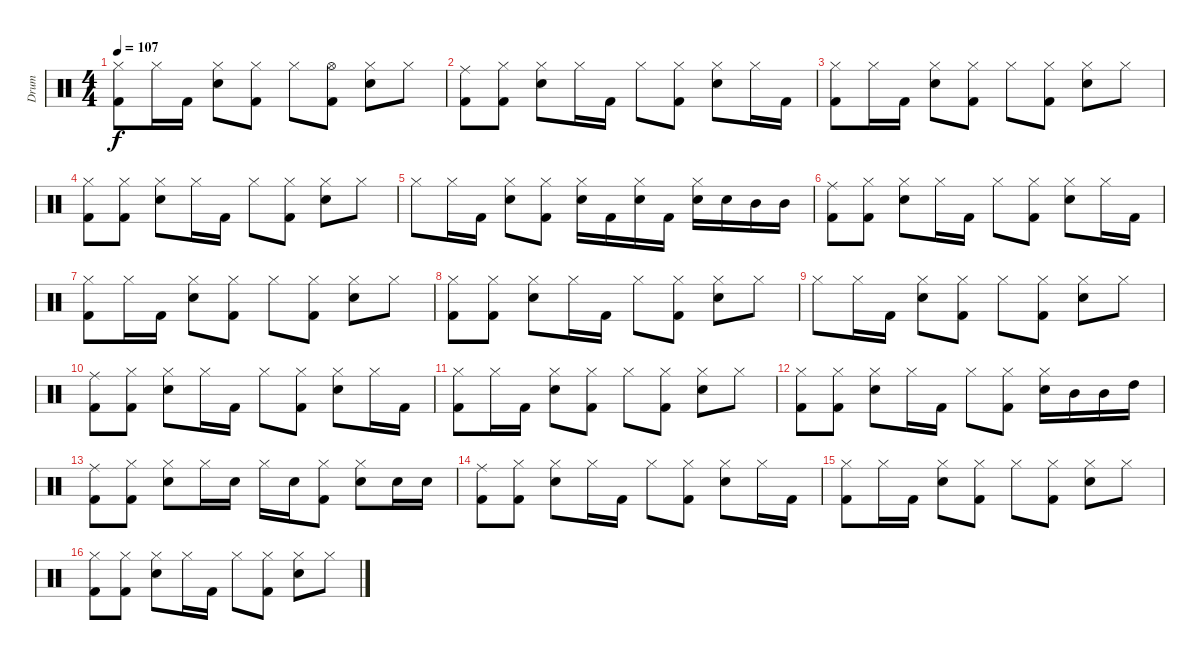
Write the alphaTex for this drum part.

\track ("Drum" "Drum") {instrument percussion}
\staff {score}
\articulation defaults
\ts (4 4)
\tempo 107
\clef neutral
\ks c
("Hi-Hat (closed)" "Kick (hit) 2").8{dy f} "Hi-Hat (closed)".16 "Kick (hit) 2".16 ("Hi-Hat (closed)" "Snare (hit) 2").8 ("Hi-Hat (closed)" "Kick (hit) 2").8 "Hi-Hat (closed)".8 ("Hi-Hat (open)" "Kick (hit) 2").8 ("Hi-Hat (closed)" "Snare (hit) 2").8 "Hi-Hat (closed)".8 |
("Ride (middle)" "Kick (hit) 2").8 ("Hi-Hat (closed)" "Kick (hit) 2").8 ("Hi-Hat (closed)" "Snare (hit) 2").8 "Hi-Hat (closed)".16 "Kick (hit) 2".16 "Hi-Hat (closed)".8 ("Hi-Hat (closed)" "Kick (hit) 2").8 ("Hi-Hat (closed)" "Snare (hit) 2").8 "Hi-Hat (closed)".16 "Kick (hit) 2".16 |
("Hi-Hat (closed)" "Kick (hit) 2").8 "Hi-Hat (closed)".16 "Kick (hit) 2".16 ("Hi-Hat (closed)" "Snare (hit) 2").8 ("Hi-Hat (closed)" "Kick (hit) 2").8 "Hi-Hat (closed)".8 ("Hi-Hat (closed)" "Kick (hit) 2").8 ("Hi-Hat (closed)" "Snare (hit) 2").8 "Hi-Hat (closed)".8 |
("Hi-Hat (closed)" "Kick (hit) 2").8 ("Hi-Hat (closed)" "Kick (hit) 2").8 ("Hi-Hat (closed)" "Snare (hit) 2").8 "Hi-Hat (closed)".16 "Kick (hit) 2".16 "Hi-Hat (closed)".8 ("Hi-Hat (closed)" "Kick (hit) 2").8 ("Hi-Hat (closed)" "Snare (hit) 2").8 "Hi-Hat (closed)".8 |
"Hi-Hat (closed)".8 "Hi-Hat (closed)".16 "Kick (hit) 2".16 ("Hi-Hat (closed)" "Snare (hit) 2").8 ("Hi-Hat (closed)" "Kick (hit) 2").8 ("Hi-Hat (closed)" "Snare (hit) 2").16 "Kick (hit) 2".16 ("Hi-Hat (closed)" "Snare (hit) 2").16 "Kick (hit) 2".16 ("Hi-Hat (closed)" "Snare (hit) 2").16 "Snare (hit) 2".16 "Mid Tom (hit)".16 "Mid Tom (hit)".16 |
("Ride (middle)" "Kick (hit) 2").8 ("Hi-Hat (closed)" "Kick (hit) 2").8 ("Hi-Hat (closed)" "Snare (hit) 2").8 "Hi-Hat (closed)".16 "Kick (hit) 2".16 "Hi-Hat (closed)".8 ("Hi-Hat (closed)" "Kick (hit) 2").8 ("Hi-Hat (closed)" "Snare (hit) 2").8 "Hi-Hat (closed)".16 "Kick (hit) 2".16 |
("Hi-Hat (closed)" "Kick (hit) 2").8 "Hi-Hat (closed)".16 "Kick (hit) 2".16 ("Hi-Hat (closed)" "Snare (hit) 2").8 ("Hi-Hat (closed)" "Kick (hit) 2").8 "Hi-Hat (closed)".8 ("Hi-Hat (closed)" "Kick (hit) 2").8 ("Hi-Hat (closed)" "Snare (hit) 2").8 "Hi-Hat (closed)".8 |
("Hi-Hat (closed)" "Kick (hit) 2").8 ("Hi-Hat (closed)" "Kick (hit) 2").8 ("Hi-Hat (closed)" "Snare (hit) 2").8 "Hi-Hat (closed)".16 "Kick (hit) 2".16 "Hi-Hat (closed)".8 ("Hi-Hat (closed)" "Kick (hit) 2").8 ("Hi-Hat (closed)" "Snare (hit) 2").8 "Hi-Hat (closed)".8 |
"Hi-Hat (closed)".8 "Hi-Hat (closed)".16 "Kick (hit) 2".16 ("Hi-Hat (closed)" "Snare (hit) 2").8 ("Hi-Hat (closed)" "Kick (hit) 2").8 "Hi-Hat (closed)".8 ("Hi-Hat (closed)" "Kick (hit) 2").8 ("Hi-Hat (closed)" "Snare (hit) 2").8 "Hi-Hat (closed)".8 |
("Ride (middle)" "Kick (hit) 2").8 ("Hi-Hat (closed)" "Kick (hit) 2").8 ("Hi-Hat (closed)" "Snare (hit) 2").8 "Hi-Hat (closed)".16 "Kick (hit) 2".16 "Hi-Hat (closed)".8 ("Hi-Hat (closed)" "Kick (hit) 2").8 ("Hi-Hat (closed)" "Snare (hit) 2").8 "Hi-Hat (closed)".16 "Kick (hit) 2".16 |
("Hi-Hat (closed)" "Kick (hit) 2").8 "Hi-Hat (closed)".16 "Kick (hit) 2".16 ("Hi-Hat (closed)" "Snare (hit) 2").8 ("Hi-Hat (closed)" "Kick (hit) 2").8 "Hi-Hat (closed)".8 ("Hi-Hat (closed)" "Kick (hit) 2").8 ("Hi-Hat (closed)" "Snare (hit) 2").8 "Hi-Hat (closed)".8 |
("Hi-Hat (closed)" "Kick (hit) 2").8 ("Hi-Hat (closed)" "Kick (hit) 2").8 ("Hi-Hat (closed)" "Snare (hit) 2").8 "Hi-Hat (closed)".16 "Kick (hit) 2".16 "Hi-Hat (closed)".8 ("Hi-Hat (closed)" "Kick (hit) 2").8 ("Hi-Hat (closed)" "Snare (hit) 2").16 "Mid Tom (hit)".16 "Mid Tom (hit)".16 "High Tom (hit)".16 |
("Ride (middle)" "Kick (hit) 2").8 ("Hi-Hat (closed)" "Kick (hit) 2").8 ("Hi-Hat (closed)" "Snare (hit) 2").8 "Hi-Hat (closed)".16 "Snare (hit) 2".16 "Hi-Hat (closed)".16 "Snare (hit) 2".16 ("Hi-Hat (closed)" "Kick (hit) 2").8 ("Hi-Hat (closed)" "Snare (hit) 2").8 "Snare (hit) 2".16 "Snare (hit) 2".16 |
("Ride (middle)" "Kick (hit) 2").8 ("Hi-Hat (closed)" "Kick (hit) 2").8 ("Hi-Hat (closed)" "Snare (hit) 2").8 "Hi-Hat (closed)".16 "Kick (hit) 2".16 "Hi-Hat (closed)".8 ("Hi-Hat (closed)" "Kick (hit) 2").8 ("Hi-Hat (closed)" "Snare (hit) 2").8 "Hi-Hat (closed)".16 "Kick (hit) 2".16 |
("Hi-Hat (closed)" "Kick (hit) 2").8 "Hi-Hat (closed)".16 "Kick (hit) 2".16 ("Hi-Hat (closed)" "Snare (hit) 2").8 ("Hi-Hat (closed)" "Kick (hit) 2").8 "Hi-Hat (closed)".8 ("Hi-Hat (closed)" "Kick (hit) 2").8 ("Hi-Hat (closed)" "Snare (hit) 2").8 "Hi-Hat (closed)".8 |
("Hi-Hat (closed)" "Kick (hit) 2").8 ("Hi-Hat (closed)" "Kick (hit) 2").8 ("Hi-Hat (closed)" "Snare (hit) 2").8 "Hi-Hat (closed)".16 "Kick (hit) 2".16 "Hi-Hat (closed)".8 ("Hi-Hat (closed)" "Kick (hit) 2").8 ("Hi-Hat (closed)" "Snare (hit) 2").8 "Hi-Hat (closed)".8
